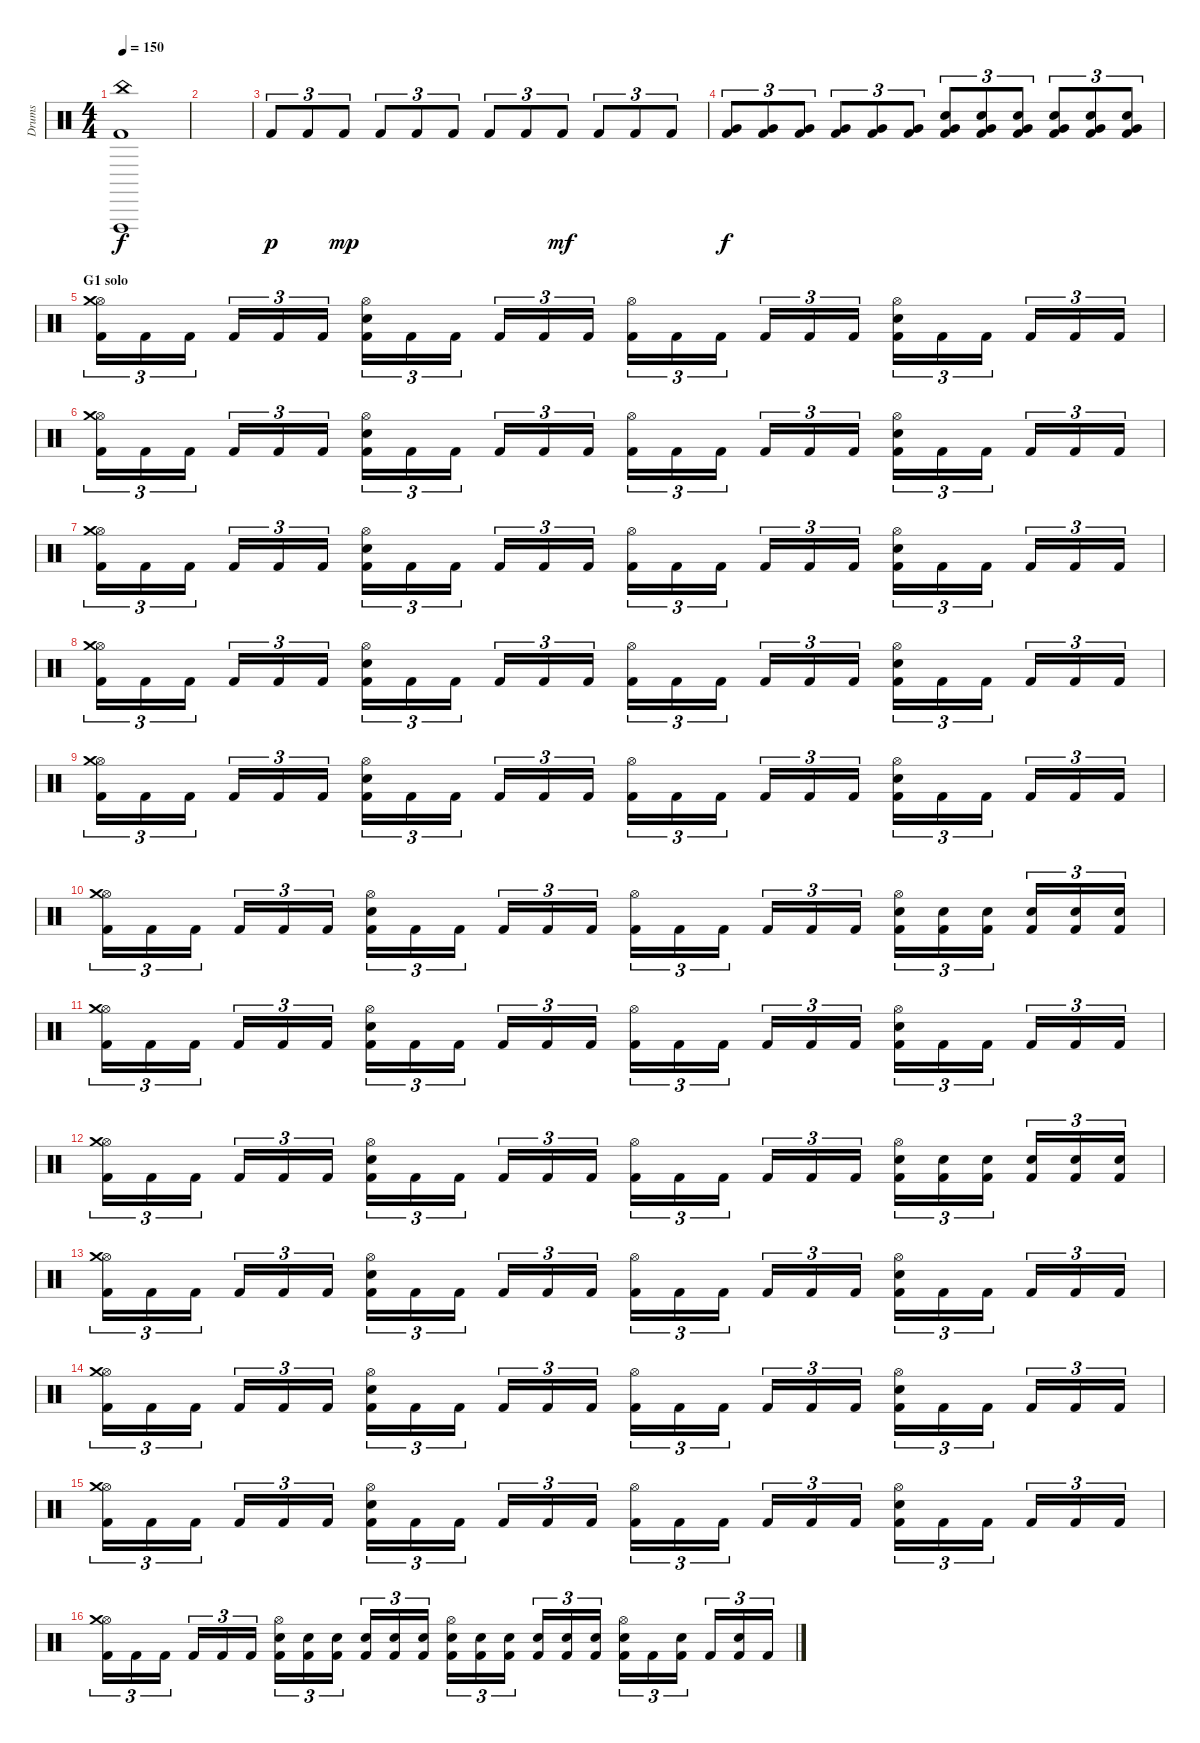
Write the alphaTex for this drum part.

\track ("Drums" "Drums") {instrument percussion}
\staff {score}
\articulation defaults
\ts (4 4)
\tempo 150
\clef neutral
\ks c
("Vibraslap (hit)" "Kick (hit) 2" "China (hit)").1{dy f} |
|
"Kick (hit) 2".8{tu (3 2) dy p} "Kick (hit) 2".8{tu (3 2)} "Kick (hit) 2".8{tu (3 2) dy mp} "Kick (hit) 2".8{tu (3 2)} "Kick (hit) 2".8{tu (3 2)} "Kick (hit) 2".8{tu (3 2)} "Kick (hit) 2".8{tu (3 2)} "Kick (hit) 2".8{tu (3 2)} "Kick (hit) 2".8{tu (3 2) dy mf} "Kick (hit) 2".8{tu (3 2)} "Kick (hit) 2".8{tu (3 2)} "Kick (hit) 2".8{tu (3 2)} |
("Very Low Tom (hit)" "Kick (hit) 2").8{tu (3 2) dy f} ("Very Low Tom (hit)" "Kick (hit) 2").8{tu (3 2)} ("Very Low Tom (hit)" "Kick (hit) 2").8{tu (3 2)} ("Very Low Tom (hit)" "Kick (hit) 2").8{tu (3 2)} ("Very Low Tom (hit)" "Kick (hit) 2").8{tu (3 2)} ("Very Low Tom (hit)" "Kick (hit) 2").8{tu (3 2)} ("Very Low Tom (hit)" "Electric Snare (hit)" "Kick (hit) 2").8{tu (3 2)} ("Very Low Tom (hit)" "Electric Snare (hit)" "Kick (hit) 2").8{tu (3 2)} ("Very Low Tom (hit)" "Electric Snare (hit)" "Kick (hit) 2").8{tu (3 2)} ("Very Low Tom (hit)" "Electric Snare (hit)" "Kick (hit) 2").8{tu (3 2)} ("Very Low Tom (hit)" "Electric Snare (hit)" "Kick (hit) 2").8{tu (3 2)} ("Very Low Tom (hit)" "Electric Snare (hit)" "Kick (hit) 2").8{tu (3 2)} |
\section ("" "G1 solo")
("Hi-Hat (open)" "Crash medium (hit)" "Kick (hit) 2").16{tu (3 2)} "Kick (hit) 2".16{tu (3 2)} "Kick (hit) 2".16{tu (3 2)} "Kick (hit) 2".16{tu (3 2)} "Kick (hit) 2".16{tu (3 2)} "Kick (hit) 2".16{tu (3 2)} ("Hi-Hat (open)" "Electric Snare (hit)" "Kick (hit) 2").16{tu (3 2)} "Kick (hit) 2".16{tu (3 2)} "Kick (hit) 2".16{tu (3 2)} "Kick (hit) 2".16{tu (3 2)} "Kick (hit) 2".16{tu (3 2)} "Kick (hit) 2".16{tu (3 2)} ("Hi-Hat (open)" "Kick (hit) 2").16{tu (3 2)} "Kick (hit) 2".16{tu (3 2)} "Kick (hit) 2".16{tu (3 2)} "Kick (hit) 2".16{tu (3 2)} "Kick (hit) 2".16{tu (3 2)} "Kick (hit) 2".16{tu (3 2)} ("Hi-Hat (open)" "Electric Snare (hit)" "Kick (hit) 2").16{tu (3 2)} "Kick (hit) 2".16{tu (3 2)} "Kick (hit) 2".16{tu (3 2)} "Kick (hit) 2".16{tu (3 2)} "Kick (hit) 2".16{tu (3 2)} "Kick (hit) 2".16{tu (3 2)} |
("Hi-Hat (open)" "Crash medium (hit)" "Kick (hit) 2").16{tu (3 2)} "Kick (hit) 2".16{tu (3 2)} "Kick (hit) 2".16{tu (3 2)} "Kick (hit) 2".16{tu (3 2)} "Kick (hit) 2".16{tu (3 2)} "Kick (hit) 2".16{tu (3 2)} ("Hi-Hat (open)" "Electric Snare (hit)" "Kick (hit) 2").16{tu (3 2)} "Kick (hit) 2".16{tu (3 2)} "Kick (hit) 2".16{tu (3 2)} "Kick (hit) 2".16{tu (3 2)} "Kick (hit) 2".16{tu (3 2)} "Kick (hit) 2".16{tu (3 2)} ("Hi-Hat (open)" "Kick (hit) 2").16{tu (3 2)} "Kick (hit) 2".16{tu (3 2)} "Kick (hit) 2".16{tu (3 2)} "Kick (hit) 2".16{tu (3 2)} "Kick (hit) 2".16{tu (3 2)} "Kick (hit) 2".16{tu (3 2)} ("Hi-Hat (open)" "Electric Snare (hit)" "Kick (hit) 2").16{tu (3 2)} "Kick (hit) 2".16{tu (3 2)} "Kick (hit) 2".16{tu (3 2)} "Kick (hit) 2".16{tu (3 2)} "Kick (hit) 2".16{tu (3 2)} "Kick (hit) 2".16{tu (3 2)} |
("Hi-Hat (open)" "Crash medium (hit)" "Kick (hit) 2").16{tu (3 2)} "Kick (hit) 2".16{tu (3 2)} "Kick (hit) 2".16{tu (3 2)} "Kick (hit) 2".16{tu (3 2)} "Kick (hit) 2".16{tu (3 2)} "Kick (hit) 2".16{tu (3 2)} ("Hi-Hat (open)" "Electric Snare (hit)" "Kick (hit) 2").16{tu (3 2)} "Kick (hit) 2".16{tu (3 2)} "Kick (hit) 2".16{tu (3 2)} "Kick (hit) 2".16{tu (3 2)} "Kick (hit) 2".16{tu (3 2)} "Kick (hit) 2".16{tu (3 2)} ("Hi-Hat (open)" "Kick (hit) 2").16{tu (3 2)} "Kick (hit) 2".16{tu (3 2)} "Kick (hit) 2".16{tu (3 2)} "Kick (hit) 2".16{tu (3 2)} "Kick (hit) 2".16{tu (3 2)} "Kick (hit) 2".16{tu (3 2)} ("Hi-Hat (open)" "Electric Snare (hit)" "Kick (hit) 2").16{tu (3 2)} "Kick (hit) 2".16{tu (3 2)} "Kick (hit) 2".16{tu (3 2)} "Kick (hit) 2".16{tu (3 2)} "Kick (hit) 2".16{tu (3 2)} "Kick (hit) 2".16{tu (3 2)} |
("Hi-Hat (open)" "Crash medium (hit)" "Kick (hit) 2").16{tu (3 2)} "Kick (hit) 2".16{tu (3 2)} "Kick (hit) 2".16{tu (3 2)} "Kick (hit) 2".16{tu (3 2)} "Kick (hit) 2".16{tu (3 2)} "Kick (hit) 2".16{tu (3 2)} ("Hi-Hat (open)" "Electric Snare (hit)" "Kick (hit) 2").16{tu (3 2)} "Kick (hit) 2".16{tu (3 2)} "Kick (hit) 2".16{tu (3 2)} "Kick (hit) 2".16{tu (3 2)} "Kick (hit) 2".16{tu (3 2)} "Kick (hit) 2".16{tu (3 2)} ("Hi-Hat (open)" "Kick (hit) 2").16{tu (3 2)} "Kick (hit) 2".16{tu (3 2)} "Kick (hit) 2".16{tu (3 2)} "Kick (hit) 2".16{tu (3 2)} "Kick (hit) 2".16{tu (3 2)} "Kick (hit) 2".16{tu (3 2)} ("Hi-Hat (open)" "Electric Snare (hit)" "Kick (hit) 2").16{tu (3 2)} "Kick (hit) 2".16{tu (3 2)} "Kick (hit) 2".16{tu (3 2)} "Kick (hit) 2".16{tu (3 2)} "Kick (hit) 2".16{tu (3 2)} "Kick (hit) 2".16{tu (3 2)} |
("Hi-Hat (open)" "Crash medium (hit)" "Kick (hit) 2").16{tu (3 2)} "Kick (hit) 2".16{tu (3 2)} "Kick (hit) 2".16{tu (3 2)} "Kick (hit) 2".16{tu (3 2)} "Kick (hit) 2".16{tu (3 2)} "Kick (hit) 2".16{tu (3 2)} ("Hi-Hat (open)" "Electric Snare (hit)" "Kick (hit) 2").16{tu (3 2)} "Kick (hit) 2".16{tu (3 2)} "Kick (hit) 2".16{tu (3 2)} "Kick (hit) 2".16{tu (3 2)} "Kick (hit) 2".16{tu (3 2)} "Kick (hit) 2".16{tu (3 2)} ("Hi-Hat (open)" "Kick (hit) 2").16{tu (3 2)} "Kick (hit) 2".16{tu (3 2)} "Kick (hit) 2".16{tu (3 2)} "Kick (hit) 2".16{tu (3 2)} "Kick (hit) 2".16{tu (3 2)} "Kick (hit) 2".16{tu (3 2)} ("Hi-Hat (open)" "Electric Snare (hit)" "Kick (hit) 2").16{tu (3 2)} "Kick (hit) 2".16{tu (3 2)} "Kick (hit) 2".16{tu (3 2)} "Kick (hit) 2".16{tu (3 2)} "Kick (hit) 2".16{tu (3 2)} "Kick (hit) 2".16{tu (3 2)} |
("Hi-Hat (open)" "Crash medium (hit)" "Kick (hit) 2").16{tu (3 2)} "Kick (hit) 2".16{tu (3 2)} "Kick (hit) 2".16{tu (3 2)} "Kick (hit) 2".16{tu (3 2)} "Kick (hit) 2".16{tu (3 2)} "Kick (hit) 2".16{tu (3 2)} ("Hi-Hat (open)" "Electric Snare (hit)" "Kick (hit) 2").16{tu (3 2)} "Kick (hit) 2".16{tu (3 2)} "Kick (hit) 2".16{tu (3 2)} "Kick (hit) 2".16{tu (3 2)} "Kick (hit) 2".16{tu (3 2)} "Kick (hit) 2".16{tu (3 2)} ("Hi-Hat (open)" "Kick (hit) 2").16{tu (3 2)} "Kick (hit) 2".16{tu (3 2)} "Kick (hit) 2".16{tu (3 2)} "Kick (hit) 2".16{tu (3 2)} "Kick (hit) 2".16{tu (3 2)} "Kick (hit) 2".16{tu (3 2)} ("Hi-Hat (open)" "Electric Snare (hit)" "Kick (hit) 2").16{tu (3 2)} ("Electric Snare (hit)" "Kick (hit) 2").16{tu (3 2)} ("Electric Snare (hit)" "Kick (hit) 2").16{tu (3 2)} ("Electric Snare (hit)" "Kick (hit) 2").16{tu (3 2)} ("Electric Snare (hit)" "Kick (hit) 2").16{tu (3 2)} ("Electric Snare (hit)" "Kick (hit) 2").16{tu (3 2)} |
("Hi-Hat (open)" "Crash medium (hit)" "Kick (hit) 2").16{tu (3 2)} "Kick (hit) 2".16{tu (3 2)} "Kick (hit) 2".16{tu (3 2)} "Kick (hit) 2".16{tu (3 2)} "Kick (hit) 2".16{tu (3 2)} "Kick (hit) 2".16{tu (3 2)} ("Hi-Hat (open)" "Electric Snare (hit)" "Kick (hit) 2").16{tu (3 2)} "Kick (hit) 2".16{tu (3 2)} "Kick (hit) 2".16{tu (3 2)} "Kick (hit) 2".16{tu (3 2)} "Kick (hit) 2".16{tu (3 2)} "Kick (hit) 2".16{tu (3 2)} ("Hi-Hat (open)" "Kick (hit) 2").16{tu (3 2)} "Kick (hit) 2".16{tu (3 2)} "Kick (hit) 2".16{tu (3 2)} "Kick (hit) 2".16{tu (3 2)} "Kick (hit) 2".16{tu (3 2)} "Kick (hit) 2".16{tu (3 2)} ("Hi-Hat (open)" "Electric Snare (hit)" "Kick (hit) 2").16{tu (3 2)} "Kick (hit) 2".16{tu (3 2)} "Kick (hit) 2".16{tu (3 2)} "Kick (hit) 2".16{tu (3 2)} "Kick (hit) 2".16{tu (3 2)} "Kick (hit) 2".16{tu (3 2)} |
("Hi-Hat (open)" "Crash medium (hit)" "Kick (hit) 2").16{tu (3 2)} "Kick (hit) 2".16{tu (3 2)} "Kick (hit) 2".16{tu (3 2)} "Kick (hit) 2".16{tu (3 2)} "Kick (hit) 2".16{tu (3 2)} "Kick (hit) 2".16{tu (3 2)} ("Hi-Hat (open)" "Electric Snare (hit)" "Kick (hit) 2").16{tu (3 2)} "Kick (hit) 2".16{tu (3 2)} "Kick (hit) 2".16{tu (3 2)} "Kick (hit) 2".16{tu (3 2)} "Kick (hit) 2".16{tu (3 2)} "Kick (hit) 2".16{tu (3 2)} ("Hi-Hat (open)" "Kick (hit) 2").16{tu (3 2)} "Kick (hit) 2".16{tu (3 2)} "Kick (hit) 2".16{tu (3 2)} "Kick (hit) 2".16{tu (3 2)} "Kick (hit) 2".16{tu (3 2)} "Kick (hit) 2".16{tu (3 2)} ("Hi-Hat (open)" "Electric Snare (hit)" "Kick (hit) 2").16{tu (3 2)} ("Electric Snare (hit)" "Kick (hit) 2").16{tu (3 2)} ("Electric Snare (hit)" "Kick (hit) 2").16{tu (3 2)} ("Electric Snare (hit)" "Kick (hit) 2").16{tu (3 2)} ("Electric Snare (hit)" "Kick (hit) 2").16{tu (3 2)} ("Electric Snare (hit)" "Kick (hit) 2").16{tu (3 2)} |
("Hi-Hat (open)" "Crash medium (hit)" "Kick (hit) 2").16{tu (3 2)} "Kick (hit) 2".16{tu (3 2)} "Kick (hit) 2".16{tu (3 2)} "Kick (hit) 2".16{tu (3 2)} "Kick (hit) 2".16{tu (3 2)} "Kick (hit) 2".16{tu (3 2)} ("Hi-Hat (open)" "Electric Snare (hit)" "Kick (hit) 2").16{tu (3 2)} "Kick (hit) 2".16{tu (3 2)} "Kick (hit) 2".16{tu (3 2)} "Kick (hit) 2".16{tu (3 2)} "Kick (hit) 2".16{tu (3 2)} "Kick (hit) 2".16{tu (3 2)} ("Hi-Hat (open)" "Kick (hit) 2").16{tu (3 2)} "Kick (hit) 2".16{tu (3 2)} "Kick (hit) 2".16{tu (3 2)} "Kick (hit) 2".16{tu (3 2)} "Kick (hit) 2".16{tu (3 2)} "Kick (hit) 2".16{tu (3 2)} ("Hi-Hat (open)" "Electric Snare (hit)" "Kick (hit) 2").16{tu (3 2)} "Kick (hit) 2".16{tu (3 2)} "Kick (hit) 2".16{tu (3 2)} "Kick (hit) 2".16{tu (3 2)} "Kick (hit) 2".16{tu (3 2)} "Kick (hit) 2".16{tu (3 2)} |
("Hi-Hat (open)" "Crash medium (hit)" "Kick (hit) 2").16{tu (3 2)} "Kick (hit) 2".16{tu (3 2)} "Kick (hit) 2".16{tu (3 2)} "Kick (hit) 2".16{tu (3 2)} "Kick (hit) 2".16{tu (3 2)} "Kick (hit) 2".16{tu (3 2)} ("Hi-Hat (open)" "Electric Snare (hit)" "Kick (hit) 2").16{tu (3 2)} "Kick (hit) 2".16{tu (3 2)} "Kick (hit) 2".16{tu (3 2)} "Kick (hit) 2".16{tu (3 2)} "Kick (hit) 2".16{tu (3 2)} "Kick (hit) 2".16{tu (3 2)} ("Hi-Hat (open)" "Kick (hit) 2").16{tu (3 2)} "Kick (hit) 2".16{tu (3 2)} "Kick (hit) 2".16{tu (3 2)} "Kick (hit) 2".16{tu (3 2)} "Kick (hit) 2".16{tu (3 2)} "Kick (hit) 2".16{tu (3 2)} ("Hi-Hat (open)" "Electric Snare (hit)" "Kick (hit) 2").16{tu (3 2)} "Kick (hit) 2".16{tu (3 2)} "Kick (hit) 2".16{tu (3 2)} "Kick (hit) 2".16{tu (3 2)} "Kick (hit) 2".16{tu (3 2)} "Kick (hit) 2".16{tu (3 2)} |
("Hi-Hat (open)" "Crash medium (hit)" "Kick (hit) 2").16{tu (3 2)} "Kick (hit) 2".16{tu (3 2)} "Kick (hit) 2".16{tu (3 2)} "Kick (hit) 2".16{tu (3 2)} "Kick (hit) 2".16{tu (3 2)} "Kick (hit) 2".16{tu (3 2)} ("Hi-Hat (open)" "Electric Snare (hit)" "Kick (hit) 2").16{tu (3 2)} "Kick (hit) 2".16{tu (3 2)} "Kick (hit) 2".16{tu (3 2)} "Kick (hit) 2".16{tu (3 2)} "Kick (hit) 2".16{tu (3 2)} "Kick (hit) 2".16{tu (3 2)} ("Hi-Hat (open)" "Kick (hit) 2").16{tu (3 2)} "Kick (hit) 2".16{tu (3 2)} "Kick (hit) 2".16{tu (3 2)} "Kick (hit) 2".16{tu (3 2)} "Kick (hit) 2".16{tu (3 2)} "Kick (hit) 2".16{tu (3 2)} ("Hi-Hat (open)" "Electric Snare (hit)" "Kick (hit) 2").16{tu (3 2)} "Kick (hit) 2".16{tu (3 2)} "Kick (hit) 2".16{tu (3 2)} "Kick (hit) 2".16{tu (3 2)} "Kick (hit) 2".16{tu (3 2)} "Kick (hit) 2".16{tu (3 2)} |
("Hi-Hat (open)" "Crash medium (hit)" "Kick (hit) 2").16{tu (3 2)} "Kick (hit) 2".16{tu (3 2)} "Kick (hit) 2".16{tu (3 2)} "Kick (hit) 2".16{tu (3 2)} "Kick (hit) 2".16{tu (3 2)} "Kick (hit) 2".16{tu (3 2)} ("Hi-Hat (open)" "Electric Snare (hit)" "Kick (hit) 2").16{tu (3 2)} ("Electric Snare (hit)" "Kick (hit) 2").16{tu (3 2)} ("Electric Snare (hit)" "Kick (hit) 2").16{tu (3 2)} ("Electric Snare (hit)" "Kick (hit) 2").16{tu (3 2)} ("Electric Snare (hit)" "Kick (hit) 2").16{tu (3 2)} ("Electric Snare (hit)" "Kick (hit) 2").16{tu (3 2)} ("Hi-Hat (open)" "Electric Snare (hit)" "Kick (hit) 2").16{tu (3 2)} ("Electric Snare (hit)" "Kick (hit) 2").16{tu (3 2)} ("Electric Snare (hit)" "Kick (hit) 2").16{tu (3 2)} ("Electric Snare (hit)" "Kick (hit) 2").16{tu (3 2)} ("Electric Snare (hit)" "Kick (hit) 2").16{tu (3 2)} ("Electric Snare (hit)" "Kick (hit) 2").16{tu (3 2)} ("Hi-Hat (open)" "Electric Snare (hit)" "Kick (hit) 2").16{tu (3 2)} "Kick (hit) 2".16{tu (3 2)} ("Electric Snare (hit)" "Kick (hit) 2").16{tu (3 2)} "Kick (hit) 2".16{tu (3 2)} ("Electric Snare (hit)" "Kick (hit) 2").16{tu (3 2)} "Kick (hit) 2".16{tu (3 2)}
